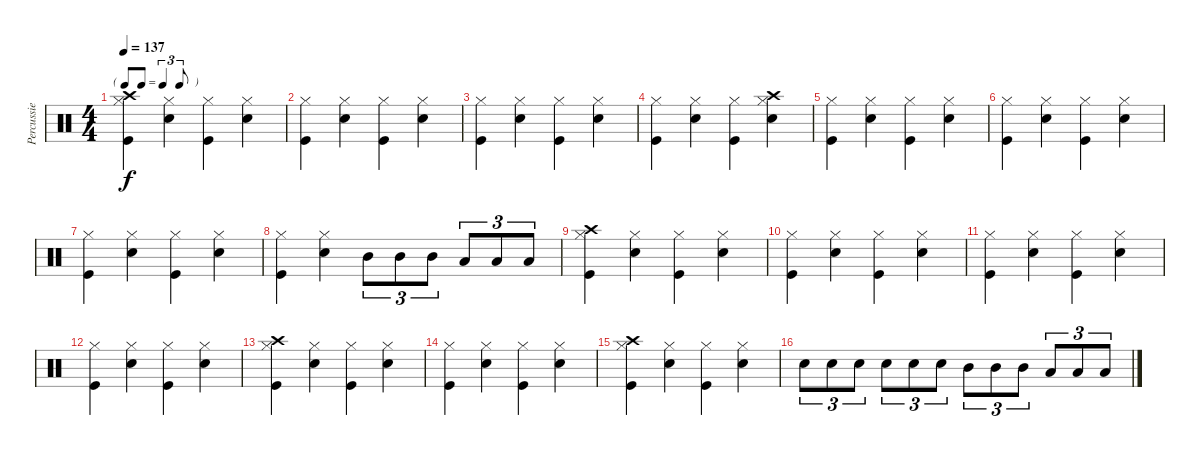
\track ("Percussie" "Percussie") {instrument percussion}
\staff {score}
\articulation defaults
\ts (4 4)
\tf triplet8th
\tempo 137
\clef neutral
\ks c
("Hi-Hat (closed)" "Crash high (hit)" "Kick (hit)").4{dy f} ("Hi-Hat (closed)" "Snare (hit) 2").4 ("Hi-Hat (closed)" "Kick (hit)").4 ("Hi-Hat (closed)" "Snare (hit) 2").4 |
("Hi-Hat (closed)" "Kick (hit)").4 ("Hi-Hat (closed)" "Snare (hit) 2").4 ("Hi-Hat (closed)" "Kick (hit)").4 ("Hi-Hat (closed)" "Snare (hit) 2").4 |
("Hi-Hat (closed)" "Kick (hit)").4 ("Hi-Hat (closed)" "Snare (hit) 2").4 ("Hi-Hat (closed)" "Kick (hit)").4 ("Hi-Hat (closed)" "Snare (hit) 2").4 |
("Hi-Hat (closed)" "Kick (hit)").4 ("Hi-Hat (closed)" "Snare (hit) 2").4 ("Hi-Hat (closed)" "Kick (hit)").4 ("Hi-Hat (closed)" "Crash high (hit)" "Snare (hit) 2").4 |
("Hi-Hat (closed)" "Kick (hit)").4 ("Hi-Hat (closed)" "Snare (hit) 2").4 ("Hi-Hat (closed)" "Kick (hit)").4 ("Hi-Hat (closed)" "Snare (hit) 2").4 |
("Hi-Hat (closed)" "Kick (hit)").4 ("Hi-Hat (closed)" "Snare (hit) 2").4 ("Hi-Hat (closed)" "Kick (hit)").4 ("Hi-Hat (closed)" "Snare (hit) 2").4 |
("Hi-Hat (closed)" "Kick (hit)").4 ("Hi-Hat (closed)" "Snare (hit) 2").4 ("Hi-Hat (closed)" "Kick (hit)").4 ("Hi-Hat (closed)" "Snare (hit) 2").4 |
("Hi-Hat (closed)" "Kick (hit)").4 ("Hi-Hat (closed)" "Snare (hit) 2").4 "Mid Tom (hit)".8{tu (3 2)} "Mid Tom (hit)".8{tu (3 2)} "Mid Tom (hit)".8{tu (3 2)} "Low Tom (hit)".8{tu (3 2)} "Low Tom (hit)".8{tu (3 2)} "Low Tom (hit)".8{tu (3 2)} |
("Hi-Hat (closed)" "Crash high (hit)" "Kick (hit)").4 ("Hi-Hat (closed)" "Snare (hit) 2").4 ("Hi-Hat (closed)" "Kick (hit)").4 ("Hi-Hat (closed)" "Snare (hit) 2").4 |
("Hi-Hat (closed)" "Kick (hit)").4 ("Hi-Hat (closed)" "Snare (hit) 2").4 ("Hi-Hat (closed)" "Kick (hit)").4 ("Hi-Hat (closed)" "Snare (hit) 2").4 |
("Hi-Hat (closed)" "Kick (hit)").4 ("Hi-Hat (closed)" "Snare (hit) 2").4 ("Hi-Hat (closed)" "Kick (hit)").4 ("Hi-Hat (closed)" "Snare (hit) 2").4 |
("Hi-Hat (closed)" "Kick (hit)").4 ("Hi-Hat (closed)" "Snare (hit) 2").4 ("Hi-Hat (closed)" "Kick (hit)").4 ("Hi-Hat (closed)" "Snare (hit) 2").4 |
("Hi-Hat (closed)" "Crash high (hit)" "Kick (hit)").4 ("Hi-Hat (closed)" "Snare (hit) 2").4 ("Hi-Hat (closed)" "Kick (hit)").4 ("Hi-Hat (closed)" "Snare (hit) 2").4 |
("Hi-Hat (closed)" "Kick (hit)").4 ("Hi-Hat (closed)" "Snare (hit) 2").4 ("Hi-Hat (closed)" "Kick (hit)").4 ("Hi-Hat (closed)" "Snare (hit) 2").4 |
("Hi-Hat (closed)" "Crash high (hit)" "Kick (hit)").4 ("Hi-Hat (closed)" "Snare (hit) 2").4 ("Hi-Hat (closed)" "Kick (hit)").4 ("Hi-Hat (closed)" "Snare (hit) 2").4 |
"Snare (hit) 2".8{tu (3 2)} "Snare (hit) 2".8{tu (3 2)} "Snare (hit) 2".8{tu (3 2)} "Snare (hit) 2".8{tu (3 2)} "Snare (hit) 2".8{tu (3 2)} "Snare (hit) 2".8{tu (3 2)} "Mid Tom (hit)".8{tu (3 2)} "Mid Tom (hit)".8{tu (3 2)} "Mid Tom (hit)".8{tu (3 2)} "Low Tom (hit)".8{tu (3 2)} "Low Tom (hit)".8{tu (3 2)} "Low Tom (hit)".8{tu (3 2)}
